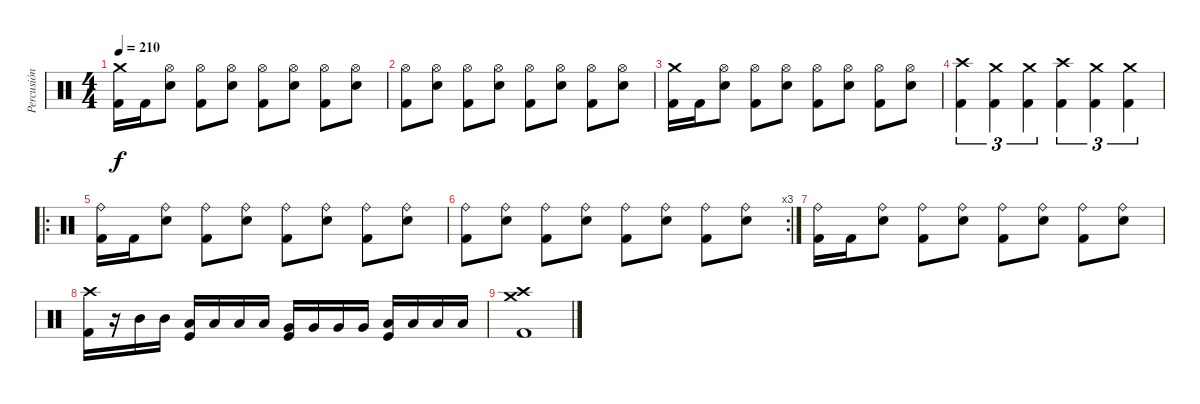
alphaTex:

\track ("Percusión" "Percusión") {instrument percussion}
\staff {score}
\articulation defaults
\ts (4 4)
\tempo 210
\clef neutral
\ks c
("Crash medium (hit)" "Kick (hit) 2").16{dy f} "Kick (hit) 2".16 ("Hi-Hat (open)" "Snare (hit) 2").8 ("Hi-Hat (open)" "Kick (hit) 2").8 ("Hi-Hat (open)" "Snare (hit) 2").8 ("Hi-Hat (open)" "Kick (hit) 2").8 ("Hi-Hat (open)" "Snare (hit) 2").8 ("Hi-Hat (open)" "Kick (hit) 2").8 ("Hi-Hat (open)" "Snare (hit) 2").8 |
("Hi-Hat (open)" "Kick (hit) 2").8 ("Hi-Hat (open)" "Snare (hit) 2").8 ("Hi-Hat (open)" "Kick (hit) 2").8 ("Hi-Hat (open)" "Snare (hit) 2").8 ("Hi-Hat (open)" "Kick (hit) 2").8 ("Hi-Hat (open)" "Snare (hit) 2").8 ("Hi-Hat (open)" "Kick (hit) 2").8 ("Hi-Hat (open)" "Snare (hit) 2").8 |
("Crash medium (hit)" "Kick (hit) 2").16 "Kick (hit) 2".16 ("Hi-Hat (open)" "Snare (hit) 2").8 ("Hi-Hat (open)" "Kick (hit) 2").8 ("Hi-Hat (open)" "Snare (hit) 2").8 ("Hi-Hat (open)" "Kick (hit) 2").8 ("Hi-Hat (open)" "Snare (hit) 2").8 ("Hi-Hat (open)" "Kick (hit) 2").8 ("Hi-Hat (open)" "Snare (hit) 2").8 |
("Crash high (hit)" "Kick (hit) 2").4{tu (3 2)} ("Crash medium (hit)" "Kick (hit) 2").4{tu (3 2)} ("Crash medium (hit)" "Kick (hit) 2").4{tu (3 2)} ("Crash high (hit)" "Kick (hit) 2").4{tu (3 2)} ("Crash medium (hit)" "Kick (hit) 2").4{tu (3 2)} ("Crash medium (hit)" "Kick (hit) 2").4{tu (3 2)} |
\ro
("Ride (bell)" "Kick (hit) 2").16 "Kick (hit) 2".16 ("Ride (bell)" "Snare (hit) 2").8 ("Ride (bell)" "Kick (hit) 2").8 ("Ride (bell)" "Snare (hit) 2").8 ("Ride (bell)" "Kick (hit) 2").8 ("Ride (bell)" "Snare (hit) 2").8 ("Ride (bell)" "Kick (hit) 2").8 ("Ride (bell)" "Snare (hit) 2").8 |
\rc 3
("Ride (bell)" "Kick (hit) 2").8 ("Ride (bell)" "Snare (hit) 2").8 ("Ride (bell)" "Kick (hit) 2").8 ("Ride (bell)" "Snare (hit) 2").8 ("Ride (bell)" "Kick (hit) 2").8 ("Ride (bell)" "Snare (hit) 2").8 ("Ride (bell)" "Kick (hit) 2").8 ("Ride (bell)" "Snare (hit) 2").8 |
("Ride (bell)" "Kick (hit) 2").16 "Kick (hit) 2".16 ("Ride (bell)" "Snare (hit) 2").8 ("Ride (bell)" "Kick (hit) 2").8 ("Ride (bell)" "Snare (hit) 2").8 ("Ride (bell)" "Kick (hit) 2").8 ("Ride (bell)" "Snare (hit) 2").8 ("Ride (bell)" "Kick (hit) 2").8 ("Ride (bell)" "Snare (hit) 2").8 |
("Crash high (hit)" "Kick (hit) 2").16 r.16 "Mid Tom (hit)".16 "Mid Tom (hit)".16 ("Low Tom (hit)" "Kick (hit)").16 "Low Tom (hit)".16 "Low Tom (hit)".16 "Low Tom (hit)".16 ("Very Low Tom (hit)" "Kick (hit)").16 "Very Low Tom (hit)".16 "Very Low Tom (hit)".16 "Very Low Tom (hit)".16 ("Low Floor Tom (hit)" "Kick (hit)").16 "Low Floor Tom (hit)".16 "Low Floor Tom (hit)".16 "Low Floor Tom (hit)".16 |
("Kick (hit) 2" "Crash medium (hit)" "Crash high (hit)").1
